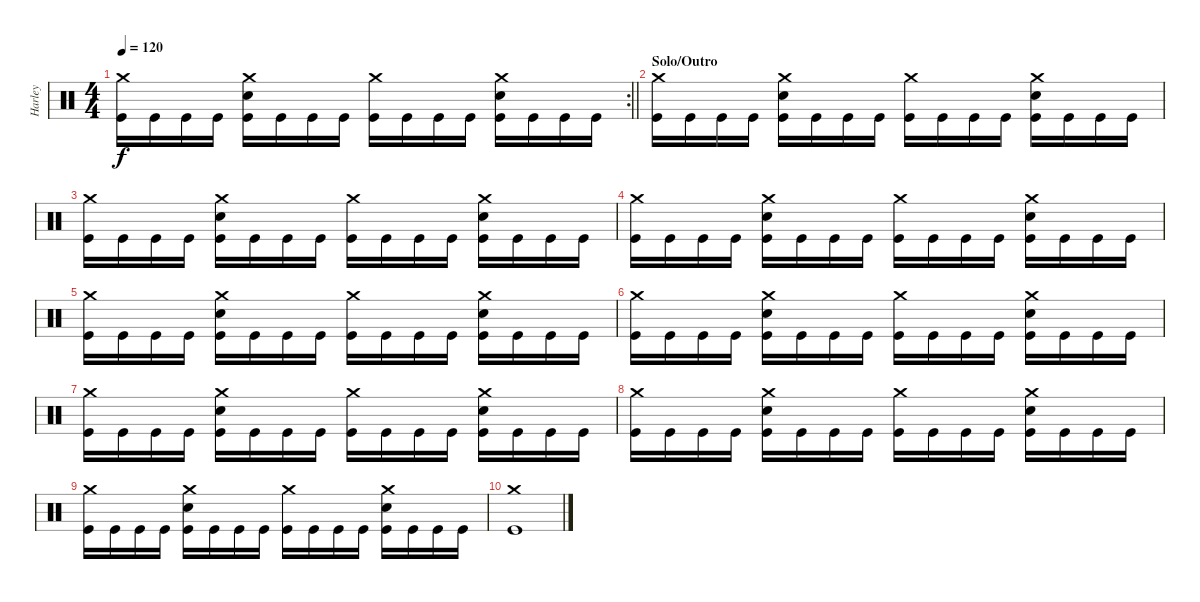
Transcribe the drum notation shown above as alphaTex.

\track ("Harley" "Harley") {instrument percussion}
\staff {score}
\articulation defaults
\rc 2
\ts (4 4)
\tempo 120
\clef neutral
\barLineRight lightlight
\ks c
("Crash medium (hit)" "Kick (hit)").16{dy f} "Kick (hit)".16 "Kick (hit)".16 "Kick (hit)".16 ("Crash medium (hit)" "Snare (hit) 2" "Kick (hit)").16 "Kick (hit)".16 "Kick (hit)".16 "Kick (hit)".16 ("Crash medium (hit)" "Kick (hit)").16 "Kick (hit)".16 "Kick (hit)".16 "Kick (hit)".16 ("Crash medium (hit)" "Snare (hit) 2" "Kick (hit)").16 "Kick (hit)".16 "Kick (hit)".16 "Kick (hit)".16 |
\section ("" "Solo/Outro")
("Crash medium (hit)" "Kick (hit)").16 "Kick (hit)".16 "Kick (hit)".16 "Kick (hit)".16 ("Crash medium (hit)" "Snare (hit) 2" "Kick (hit)").16 "Kick (hit)".16 "Kick (hit)".16 "Kick (hit)".16 ("Crash medium (hit)" "Kick (hit)").16 "Kick (hit)".16 "Kick (hit)".16 "Kick (hit)".16 ("Crash medium (hit)" "Snare (hit) 2" "Kick (hit)").16 "Kick (hit)".16 "Kick (hit)".16 "Kick (hit)".16 |
("Crash medium (hit)" "Kick (hit)").16 "Kick (hit)".16 "Kick (hit)".16 "Kick (hit)".16 ("Crash medium (hit)" "Snare (hit) 2" "Kick (hit)").16 "Kick (hit)".16 "Kick (hit)".16 "Kick (hit)".16 ("Crash medium (hit)" "Kick (hit)").16 "Kick (hit)".16 "Kick (hit)".16 "Kick (hit)".16 ("Crash medium (hit)" "Snare (hit) 2" "Kick (hit)").16 "Kick (hit)".16 "Kick (hit)".16 "Kick (hit)".16 |
("Crash medium (hit)" "Kick (hit)").16 "Kick (hit)".16 "Kick (hit)".16 "Kick (hit)".16 ("Crash medium (hit)" "Snare (hit) 2" "Kick (hit)").16 "Kick (hit)".16 "Kick (hit)".16 "Kick (hit)".16 ("Crash medium (hit)" "Kick (hit)").16 "Kick (hit)".16 "Kick (hit)".16 "Kick (hit)".16 ("Crash medium (hit)" "Snare (hit) 2" "Kick (hit)").16 "Kick (hit)".16 "Kick (hit)".16 "Kick (hit)".16 |
("Crash medium (hit)" "Kick (hit)").16 "Kick (hit)".16 "Kick (hit)".16 "Kick (hit)".16 ("Crash medium (hit)" "Snare (hit) 2" "Kick (hit)").16 "Kick (hit)".16 "Kick (hit)".16 "Kick (hit)".16 ("Crash medium (hit)" "Kick (hit)").16 "Kick (hit)".16 "Kick (hit)".16 "Kick (hit)".16 ("Crash medium (hit)" "Snare (hit) 2" "Kick (hit)").16 "Kick (hit)".16 "Kick (hit)".16 "Kick (hit)".16 |
("Crash medium (hit)" "Kick (hit)").16 "Kick (hit)".16 "Kick (hit)".16 "Kick (hit)".16 ("Crash medium (hit)" "Snare (hit) 2" "Kick (hit)").16 "Kick (hit)".16 "Kick (hit)".16 "Kick (hit)".16 ("Crash medium (hit)" "Kick (hit)").16 "Kick (hit)".16 "Kick (hit)".16 "Kick (hit)".16 ("Crash medium (hit)" "Snare (hit) 2" "Kick (hit)").16 "Kick (hit)".16 "Kick (hit)".16 "Kick (hit)".16 |
("Crash medium (hit)" "Kick (hit)").16 "Kick (hit)".16 "Kick (hit)".16 "Kick (hit)".16 ("Crash medium (hit)" "Snare (hit) 2" "Kick (hit)").16 "Kick (hit)".16 "Kick (hit)".16 "Kick (hit)".16 ("Crash medium (hit)" "Kick (hit)").16 "Kick (hit)".16 "Kick (hit)".16 "Kick (hit)".16 ("Crash medium (hit)" "Snare (hit) 2" "Kick (hit)").16 "Kick (hit)".16 "Kick (hit)".16 "Kick (hit)".16 |
("Crash medium (hit)" "Kick (hit)").16 "Kick (hit)".16 "Kick (hit)".16 "Kick (hit)".16 ("Crash medium (hit)" "Snare (hit) 2" "Kick (hit)").16 "Kick (hit)".16 "Kick (hit)".16 "Kick (hit)".16 ("Crash medium (hit)" "Kick (hit)").16 "Kick (hit)".16 "Kick (hit)".16 "Kick (hit)".16 ("Crash medium (hit)" "Snare (hit) 2" "Kick (hit)").16 "Kick (hit)".16 "Kick (hit)".16 "Kick (hit)".16 |
("Crash medium (hit)" "Kick (hit)").16 "Kick (hit)".16 "Kick (hit)".16 "Kick (hit)".16 ("Crash medium (hit)" "Snare (hit) 2" "Kick (hit)").16 "Kick (hit)".16 "Kick (hit)".16 "Kick (hit)".16 ("Crash medium (hit)" "Kick (hit)").16 "Kick (hit)".16 "Kick (hit)".16 "Kick (hit)".16 ("Crash medium (hit)" "Snare (hit) 2" "Kick (hit)").16 "Kick (hit)".16 "Kick (hit)".16 "Kick (hit)".16 |
("Crash medium (hit)" "Kick (hit)").1
